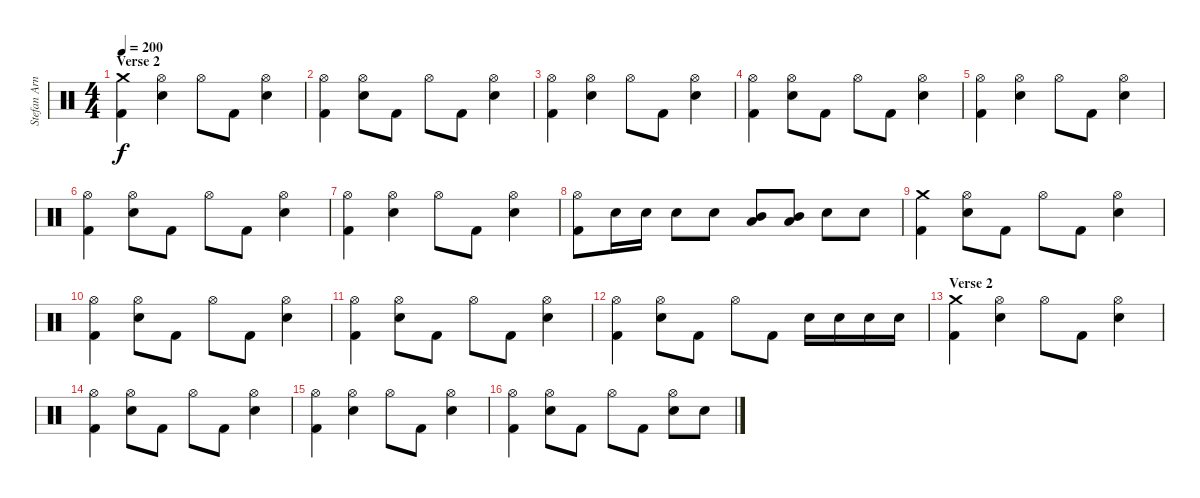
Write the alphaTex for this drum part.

\track ("Stefan Arnold" "Stefan Arn") {instrument percussion}
\staff {score}
\articulation defaults
\ts (4 4)
\section ("" "Verse 2")
\tempo 200
\clef neutral
\ks c
("Crash medium (hit)" "Kick (hit) 2").4{dy f} ("Hi-Hat (open)" "Electric Snare (hit)").4 "Hi-Hat (open)".8 "Kick (hit) 2".8 ("Hi-Hat (open)" "Electric Snare (hit)").4 |
("Hi-Hat (open)" "Kick (hit) 2").4 ("Hi-Hat (open)" "Electric Snare (hit)").8 "Kick (hit) 2".8 "Hi-Hat (open)".8 "Kick (hit) 2".8 ("Hi-Hat (open)" "Electric Snare (hit)").4 |
("Hi-Hat (open)" "Kick (hit) 2").4 ("Hi-Hat (open)" "Electric Snare (hit)").4 "Hi-Hat (open)".8 "Kick (hit) 2".8 ("Hi-Hat (open)" "Electric Snare (hit)").4 |
("Hi-Hat (open)" "Kick (hit) 2").4 ("Hi-Hat (open)" "Electric Snare (hit)").8 "Kick (hit) 2".8 "Hi-Hat (open)".8 "Kick (hit) 2".8 ("Hi-Hat (open)" "Electric Snare (hit)").4 |
("Hi-Hat (open)" "Kick (hit) 2").4 ("Hi-Hat (open)" "Electric Snare (hit)").4 "Hi-Hat (open)".8 "Kick (hit) 2".8 ("Hi-Hat (open)" "Electric Snare (hit)").4 |
("Hi-Hat (open)" "Kick (hit) 2").4 ("Hi-Hat (open)" "Electric Snare (hit)").8 "Kick (hit) 2".8 "Hi-Hat (open)".8 "Kick (hit) 2".8 ("Hi-Hat (open)" "Electric Snare (hit)").4 |
("Hi-Hat (open)" "Kick (hit) 2").4 ("Hi-Hat (open)" "Electric Snare (hit)").4 "Hi-Hat (open)".8 "Kick (hit) 2".8 ("Hi-Hat (open)" "Electric Snare (hit)").4 |
("Hi-Hat (open)" "Kick (hit) 2").8 "Electric Snare (hit)".16 "Electric Snare (hit)".16 "Electric Snare (hit)".8 "Electric Snare (hit)".8 ("Mid Tom (hit)" "Low Tom (hit)").8 ("Mid Tom (hit)" "Low Tom (hit)").8 "Electric Snare (hit)".8 "Electric Snare (hit)".8 |
("Crash medium (hit)" "Kick (hit) 2").4 ("Hi-Hat (open)" "Electric Snare (hit)").8 "Kick (hit) 2".8 "Hi-Hat (open)".8 "Kick (hit) 2".8 ("Hi-Hat (open)" "Electric Snare (hit)").4 |
("Hi-Hat (open)" "Kick (hit) 2").4 ("Hi-Hat (open)" "Electric Snare (hit)").8 "Kick (hit) 2".8 "Hi-Hat (open)".8 "Kick (hit) 2".8 ("Hi-Hat (open)" "Electric Snare (hit)").4 |
("Hi-Hat (open)" "Kick (hit) 2").4 ("Hi-Hat (open)" "Electric Snare (hit)").8 "Kick (hit) 2".8 "Hi-Hat (open)".8 "Kick (hit) 2".8 ("Hi-Hat (open)" "Electric Snare (hit)").4 |
("Hi-Hat (open)" "Kick (hit) 2").4 ("Hi-Hat (open)" "Electric Snare (hit)").8 "Kick (hit) 2".8 "Hi-Hat (open)".8 "Kick (hit) 2".8 "Electric Snare (hit)".16 "Electric Snare (hit)".16 "Electric Snare (hit)".16 "Electric Snare (hit)".16 |
\section ("" "Verse 2")
("Crash medium (hit)" "Kick (hit) 2").4 ("Hi-Hat (open)" "Electric Snare (hit)").4 "Hi-Hat (open)".8 "Kick (hit) 2".8 ("Hi-Hat (open)" "Electric Snare (hit)").4 |
("Hi-Hat (open)" "Kick (hit) 2").4 ("Hi-Hat (open)" "Electric Snare (hit)").8 "Kick (hit) 2".8 "Hi-Hat (open)".8 "Kick (hit) 2".8 ("Hi-Hat (open)" "Electric Snare (hit)").4 |
("Hi-Hat (open)" "Kick (hit) 2").4 ("Hi-Hat (open)" "Electric Snare (hit)").4 "Hi-Hat (open)".8 "Kick (hit) 2".8 ("Hi-Hat (open)" "Electric Snare (hit)").4 |
("Hi-Hat (open)" "Kick (hit) 2").4 ("Hi-Hat (open)" "Electric Snare (hit)").8 "Kick (hit) 2".8 "Hi-Hat (open)".8 "Kick (hit) 2".8 ("Hi-Hat (open)" "Electric Snare (hit)").8 "Electric Snare (hit)".8
